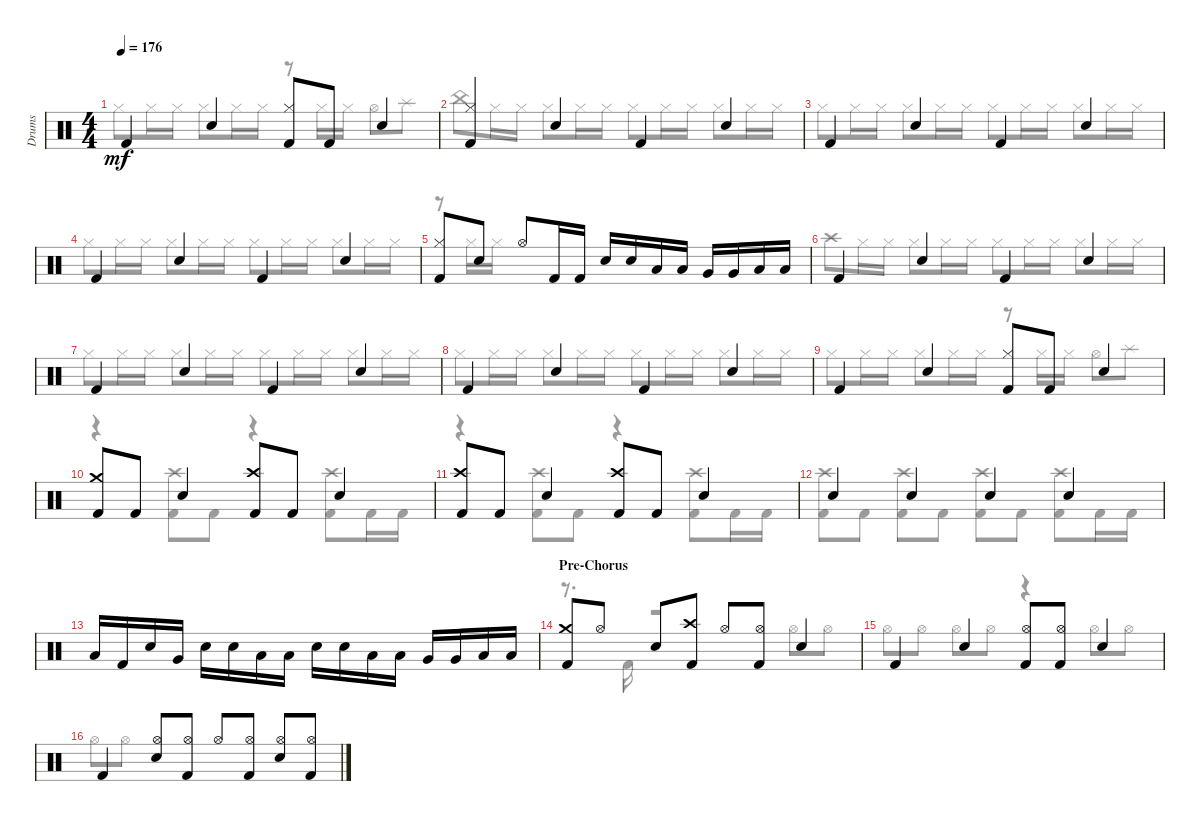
\track ("Drums" "Drums") {instrument percussion}
\staff {score}
\articulation defaults
\voice
\ts (4 4)
\tempo 176
\clef neutral
\ks aminor "Kick (hit) 2".4{dy mf} "Snare (hit) 2".4
("Kick (hit) 2" "Hi-Hat (closed)").8 "Kick (hit) 2".8 "Snare (hit) 2".4 |
("Hi-Hat (closed)" "Kick (hit) 2").4 "Snare (hit) 2".4 "Kick (hit) 2".4 "Snare (hit) 2".4 |
"Kick (hit) 2".4 "Snare (hit) 2".4 "Kick (hit) 2".4 "Snare (hit) 2".4 |
"Kick (hit) 2".4 "Snare (hit) 2".4 "Kick (hit) 2".4 "Snare (hit) 2".4 |
("Kick (hit) 2" "Hi-Hat (closed)").8 "Snare (hit) 2".8 "Hi-Hat (open)".8 "Kick (hit) 2".16 "Kick (hit) 2".16 "Snare (hit) 2".16 "Snare (hit) 2".16 "Low Tom (hit)".16 "Low Tom (hit)".16 "Very Low Tom (hit)".16 "Very Low Tom (hit)".16 "Low Floor Tom (hit)".16 "Low Floor Tom (hit)".16 |
"Kick (hit) 2".4 "Snare (hit) 2".4 "Kick (hit) 2".4 "Snare (hit) 2".4 |
"Kick (hit) 2".4 "Snare (hit) 2".4 "Kick (hit) 2".4 "Snare (hit) 2".4 |
"Kick (hit) 2".4 "Snare (hit) 2".4 "Kick (hit) 2".4 "Snare (hit) 2".4 |
"Kick (hit) 2".4 "Snare (hit) 2".4 ("Kick (hit) 2" "Hi-Hat (closed)").8 "Kick (hit) 2".8 "Snare (hit) 2".4 |
("Kick (hit) 2" "Crash medium (hit)").8 "Kick (hit) 2".8 "Snare (hit) 2".4 ("Kick (hit) 2" "Crash high (hit)").8 "Kick (hit) 2".8 "Snare (hit) 2".4 |
("Kick (hit) 2" "Crash high (hit)").8 "Kick (hit) 2".8 "Snare (hit) 2".4 ("Kick (hit) 2" "Crash high (hit)").8 "Kick (hit) 2".8 "Snare (hit) 2".4 |
"Snare (hit) 2".4 "Snare (hit) 2".4 "Snare (hit) 2".4 "Snare (hit) 2".4 |
"Low Tom (hit)".16 "Kick (hit) 2".16 "Snare (hit) 2".16 "Very Low Tom (hit)".16 "Snare (hit) 2".16 "Snare (hit) 2".16 "Low Floor Tom (hit)".16 "Low Floor Tom (hit)".16 "Snare (hit) 2".16 "Snare (hit) 2".16 "Low Tom (hit)".16 "Low Tom (hit)".16 "Very Low Tom (hit)".16 "Very Low Tom (hit)".16 "Low Floor Tom (hit)".16 "Low Floor Tom (hit)".16 |
\section ("" "Pre-Chorus")
("Kick (hit) 2" "Crash medium (hit)").8 "Hi-Hat (open)".8 "Snare (hit) 2".8 ("Kick (hit) 2" "Crash high (hit)").8 "Hi-Hat (open)".8 ("Hi-Hat (open)" "Kick (hit) 2").8 "Snare (hit) 2".4 |
"Kick (hit) 2".4 "Snare (hit) 2".4 ("Kick (hit) 2" "Hi-Hat (open)").8 ("Hi-Hat (open)" "Kick (hit) 2").8 "Snare (hit) 2".4 |
"Kick (hit) 2".4 ("Snare (hit) 2" "Hi-Hat (open)").8 ("Kick (hit) 2" "Hi-Hat (open)").8 "Hi-Hat (open)".8 ("Kick (hit) 2" "Hi-Hat (open)").8 ("Snare (hit) 2" "Hi-Hat (open)").8 ("Kick (hit) 2" "Hi-Hat (open)").8
\voice
\clef neutral
\ottava regular
\simile none
\ks aminor "Hi-Hat (closed)".8{dy mf} "Hi-Hat (closed)".16 "Hi-Hat (closed)".16 "Hi-Hat (closed)".8 "Hi-Hat (closed)".16 "Hi-Hat (closed)".16
r.8 "Hi-Hat (closed)".16 "Hi-Hat (closed)".16 "Hi-Hat (open)".8 "Splash (hit)".8 |
"China (hit)".8 "Hi-Hat (closed)".16 "Hi-Hat (closed)".16 "Hi-Hat (closed)".8 "Hi-Hat (closed)".16 "Hi-Hat (closed)".16 "Hi-Hat (closed)".8 "Hi-Hat (closed)".16 "Hi-Hat (closed)".16 "Hi-Hat (closed)".8 "Hi-Hat (closed)".16 "Hi-Hat (closed)".16 |
"Hi-Hat (closed)".8 "Hi-Hat (closed)".16 "Hi-Hat (closed)".16 "Hi-Hat (closed)".8 "Hi-Hat (closed)".16 "Hi-Hat (closed)".16 "Hi-Hat (closed)".8 "Hi-Hat (closed)".16 "Hi-Hat (closed)".16 "Hi-Hat (closed)".8 "Hi-Hat (closed)".16 "Hi-Hat (closed)".16 |
"Hi-Hat (closed)".8 "Hi-Hat (closed)".16 "Hi-Hat (closed)".16 "Hi-Hat (closed)".8 "Hi-Hat (closed)".16 "Hi-Hat (closed)".16 "Hi-Hat (closed)".8 "Hi-Hat (closed)".16 "Hi-Hat (closed)".16 "Hi-Hat (closed)".8 "Hi-Hat (closed)".16 "Hi-Hat (closed)".16 |
r.8 "Hi-Hat (closed)".16 "Hi-Hat (closed)".16 |
"Crash high (hit)".8 "Hi-Hat (closed)".16 "Hi-Hat (closed)".16 "Hi-Hat (closed)".8 "Hi-Hat (closed)".16 "Hi-Hat (closed)".16 "Hi-Hat (closed)".8 "Hi-Hat (closed)".16 "Hi-Hat (closed)".16 "Hi-Hat (closed)".8 "Hi-Hat (closed)".16 "Hi-Hat (closed)".16 |
"Hi-Hat (closed)".8 "Hi-Hat (closed)".16 "Hi-Hat (closed)".16 "Hi-Hat (closed)".8 "Hi-Hat (closed)".16 "Hi-Hat (closed)".16 "Hi-Hat (closed)".8 "Hi-Hat (closed)".16 "Hi-Hat (closed)".16 "Hi-Hat (closed)".8 "Hi-Hat (closed)".16 "Hi-Hat (closed)".16 |
"Hi-Hat (closed)".8 "Hi-Hat (closed)".16 "Hi-Hat (closed)".16 "Hi-Hat (closed)".8 "Hi-Hat (closed)".16 "Hi-Hat (closed)".16 "Hi-Hat (closed)".8 "Hi-Hat (closed)".16 "Hi-Hat (closed)".16 "Hi-Hat (closed)".8 "Hi-Hat (closed)".16 "Hi-Hat (closed)".16 |
"Hi-Hat (closed)".8 "Hi-Hat (closed)".16 "Hi-Hat (closed)".16 "Hi-Hat (closed)".8 "Hi-Hat (closed)".16 "Hi-Hat (closed)".16 r.8 "Hi-Hat (closed)".16 "Hi-Hat (closed)".16 "Hi-Hat (open)".8 "Splash (hit)".8 |
r.4 ("Crash high (hit)" "Kick (hit) 2").8 "Kick (hit) 2".8 r.4 ("Kick (hit) 2" "Crash high (hit)").8 "Kick (hit) 2".16 "Kick (hit) 2".16 |
r.4 ("Crash high (hit)" "Kick (hit) 2").8 "Kick (hit) 2".8 r.4 ("Crash high (hit)" "Kick (hit) 2").8 "Kick (hit) 2".16 "Kick (hit) 2".16 |
("Kick (hit) 2" "Crash high (hit)").8 "Kick (hit) 2".8 ("Crash high (hit)" "Kick (hit) 2").8 "Kick (hit) 2".8 ("Kick (hit) 2" "Crash high (hit)").8 "Kick (hit) 2".8 ("Kick (hit) 2" "Crash high (hit)").8 "Kick (hit) 2".16 "Kick (hit) 2".16 |
|
r.8{d} "Kick (hit) 2".16 r.2 "Hi-Hat (open)".8 "Hi-Hat (open)".8 |
"Hi-Hat (open)".8 "Hi-Hat (open)".8 "Hi-Hat (open)".8 "Hi-Hat (open)".8 r.4 "Hi-Hat (open)".8 "Hi-Hat (open)".8 |
"Hi-Hat (open)".8 "Hi-Hat (open)".8
